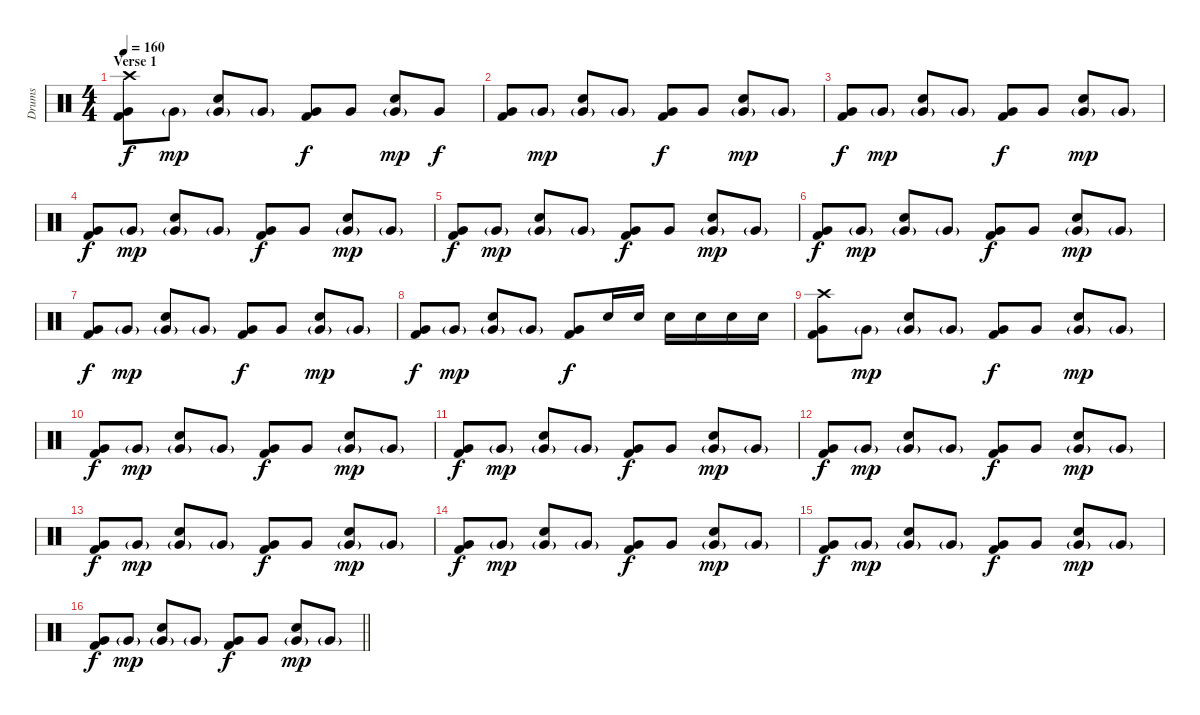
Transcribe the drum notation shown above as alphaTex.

\track ("Drums" "Drums") {instrument percussion}
\staff {score}
\articulation defaults
\ts (4 4)
\section ("" "Verse 1")
\tempo 160
\clef neutral
\ks c
("Crash high (hit)" "Very Low Tom (hit)" "Kick (hit) 2").8{dy f} "Very Low Tom (hit)"{g}.8{dy mp} ("Electric Snare (hit)" "Very Low Tom (hit)"{g}).8 "Very Low Tom (hit)"{g}.8 ("Very Low Tom (hit)" "Kick (hit) 2").8{dy f} "Very Low Tom (hit)".8 ("Electric Snare (hit)" "Very Low Tom (hit)"{g}).8{dy mp} "Very Low Tom (hit)".8{dy f} |
("Very Low Tom (hit)" "Kick (hit) 2").8 "Very Low Tom (hit)"{g}.8{dy mp} ("Electric Snare (hit)" "Very Low Tom (hit)"{g}).8 "Very Low Tom (hit)"{g}.8 ("Very Low Tom (hit)" "Kick (hit) 2").8{dy f} "Very Low Tom (hit)".8 ("Electric Snare (hit)" "Very Low Tom (hit)"{g}).8{dy mp} "Very Low Tom (hit)"{g}.8 |
("Very Low Tom (hit)" "Kick (hit) 2").8{dy f} "Very Low Tom (hit)"{g}.8{dy mp} ("Electric Snare (hit)" "Very Low Tom (hit)"{g}).8 "Very Low Tom (hit)"{g}.8 ("Very Low Tom (hit)" "Kick (hit) 2").8{dy f} "Very Low Tom (hit)".8 ("Electric Snare (hit)" "Very Low Tom (hit)"{g}).8{dy mp} "Very Low Tom (hit)"{g}.8 |
("Very Low Tom (hit)" "Kick (hit) 2").8{dy f} "Very Low Tom (hit)"{g}.8{dy mp} ("Electric Snare (hit)" "Very Low Tom (hit)"{g}).8 "Very Low Tom (hit)"{g}.8 ("Very Low Tom (hit)" "Kick (hit) 2").8{dy f} "Very Low Tom (hit)".8 ("Electric Snare (hit)" "Very Low Tom (hit)"{g}).8{dy mp} "Very Low Tom (hit)"{g}.8 |
("Very Low Tom (hit)" "Kick (hit) 2").8{dy f} "Very Low Tom (hit)"{g}.8{dy mp} ("Electric Snare (hit)" "Very Low Tom (hit)"{g}).8 "Very Low Tom (hit)"{g}.8 ("Very Low Tom (hit)" "Kick (hit) 2").8{dy f} "Very Low Tom (hit)".8 ("Electric Snare (hit)" "Very Low Tom (hit)"{g}).8{dy mp} "Very Low Tom (hit)"{g}.8 |
("Very Low Tom (hit)" "Kick (hit) 2").8{dy f} "Very Low Tom (hit)"{g}.8{dy mp} ("Electric Snare (hit)" "Very Low Tom (hit)"{g}).8 "Very Low Tom (hit)"{g}.8 ("Very Low Tom (hit)" "Kick (hit) 2").8{dy f} "Very Low Tom (hit)".8 ("Electric Snare (hit)" "Very Low Tom (hit)"{g}).8{dy mp} "Very Low Tom (hit)"{g}.8 |
("Very Low Tom (hit)" "Kick (hit) 2").8{dy f} "Very Low Tom (hit)"{g}.8{dy mp} ("Electric Snare (hit)" "Very Low Tom (hit)"{g}).8 "Very Low Tom (hit)"{g}.8 ("Very Low Tom (hit)" "Kick (hit) 2").8{dy f} "Very Low Tom (hit)".8 ("Electric Snare (hit)" "Very Low Tom (hit)"{g}).8{dy mp} "Very Low Tom (hit)"{g}.8 |
("Very Low Tom (hit)" "Kick (hit) 2").8{dy f} "Very Low Tom (hit)"{g}.8{dy mp} ("Electric Snare (hit)" "Very Low Tom (hit)"{g}).8 "Very Low Tom (hit)"{g}.8 ("Very Low Tom (hit)" "Kick (hit) 2").8{dy f} "Electric Snare (hit)".16 "Electric Snare (hit)".16 "Electric Snare (hit)".16 "Electric Snare (hit)".16 "Electric Snare (hit)".16 "Electric Snare (hit)".16 |
("Crash high (hit)" "Very Low Tom (hit)" "Kick (hit) 2").8 "Very Low Tom (hit)"{g}.8{dy mp} ("Electric Snare (hit)" "Very Low Tom (hit)"{g}).8 "Very Low Tom (hit)"{g}.8 ("Very Low Tom (hit)" "Kick (hit) 2").8{dy f} "Very Low Tom (hit)".8 ("Electric Snare (hit)" "Very Low Tom (hit)"{g}).8{dy mp} "Very Low Tom (hit)"{g}.8 |
("Very Low Tom (hit)" "Kick (hit) 2").8{dy f} "Very Low Tom (hit)"{g}.8{dy mp} ("Electric Snare (hit)" "Very Low Tom (hit)"{g}).8 "Very Low Tom (hit)"{g}.8 ("Very Low Tom (hit)" "Kick (hit) 2").8{dy f} "Very Low Tom (hit)".8 ("Electric Snare (hit)" "Very Low Tom (hit)"{g}).8{dy mp} "Very Low Tom (hit)"{g}.8 |
("Very Low Tom (hit)" "Kick (hit) 2").8{dy f} "Very Low Tom (hit)"{g}.8{dy mp} ("Electric Snare (hit)" "Very Low Tom (hit)"{g}).8 "Very Low Tom (hit)"{g}.8 ("Very Low Tom (hit)" "Kick (hit) 2").8{dy f} "Very Low Tom (hit)".8 ("Electric Snare (hit)" "Very Low Tom (hit)"{g}).8{dy mp} "Very Low Tom (hit)"{g}.8 |
("Very Low Tom (hit)" "Kick (hit) 2").8{dy f} "Very Low Tom (hit)"{g}.8{dy mp} ("Electric Snare (hit)" "Very Low Tom (hit)"{g}).8 "Very Low Tom (hit)"{g}.8 ("Very Low Tom (hit)" "Kick (hit) 2").8{dy f} "Very Low Tom (hit)".8 ("Electric Snare (hit)" "Very Low Tom (hit)"{g}).8{dy mp} "Very Low Tom (hit)"{g}.8 |
("Very Low Tom (hit)" "Kick (hit) 2").8{dy f} "Very Low Tom (hit)"{g}.8{dy mp} ("Electric Snare (hit)" "Very Low Tom (hit)"{g}).8 "Very Low Tom (hit)"{g}.8 ("Very Low Tom (hit)" "Kick (hit) 2").8{dy f} "Very Low Tom (hit)".8 ("Electric Snare (hit)" "Very Low Tom (hit)"{g}).8{dy mp} "Very Low Tom (hit)"{g}.8 |
("Very Low Tom (hit)" "Kick (hit) 2").8{dy f} "Very Low Tom (hit)"{g}.8{dy mp} ("Electric Snare (hit)" "Very Low Tom (hit)"{g}).8 "Very Low Tom (hit)"{g}.8 ("Very Low Tom (hit)" "Kick (hit) 2").8{dy f} "Very Low Tom (hit)".8 ("Electric Snare (hit)" "Very Low Tom (hit)"{g}).8{dy mp} "Very Low Tom (hit)"{g}.8 |
("Very Low Tom (hit)" "Kick (hit) 2").8{dy f} "Very Low Tom (hit)"{g}.8{dy mp} ("Electric Snare (hit)" "Very Low Tom (hit)"{g}).8 "Very Low Tom (hit)"{g}.8 ("Very Low Tom (hit)" "Kick (hit) 2").8{dy f} "Very Low Tom (hit)".8 ("Electric Snare (hit)" "Very Low Tom (hit)"{g}).8{dy mp} "Very Low Tom (hit)"{g}.8 |
\barLineRight lightlight
("Very Low Tom (hit)" "Kick (hit) 2").8{dy f} "Very Low Tom (hit)"{g}.8{dy mp} ("Electric Snare (hit)" "Very Low Tom (hit)"{g}).8 "Very Low Tom (hit)"{g}.8 ("Very Low Tom (hit)" "Kick (hit) 2").8{dy f} "Very Low Tom (hit)".8 ("Electric Snare (hit)" "Very Low Tom (hit)"{g}).8{dy mp} "Very Low Tom (hit)"{g}.8
